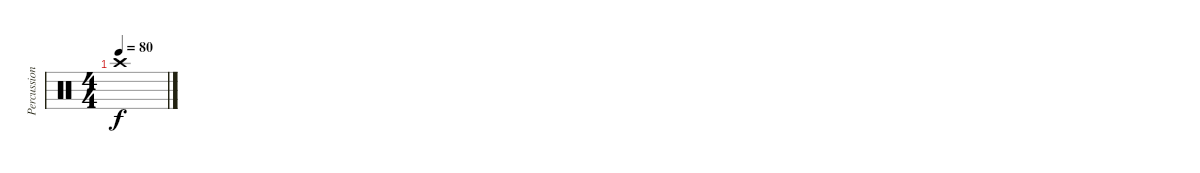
\track ("Percussions" "Percussion") {instrument percussion}
\staff {score}
\articulation defaults
\ts (4 4)
\tempo 80
\clef neutral
\ks c "Crash high (hit)".1{dy f}
